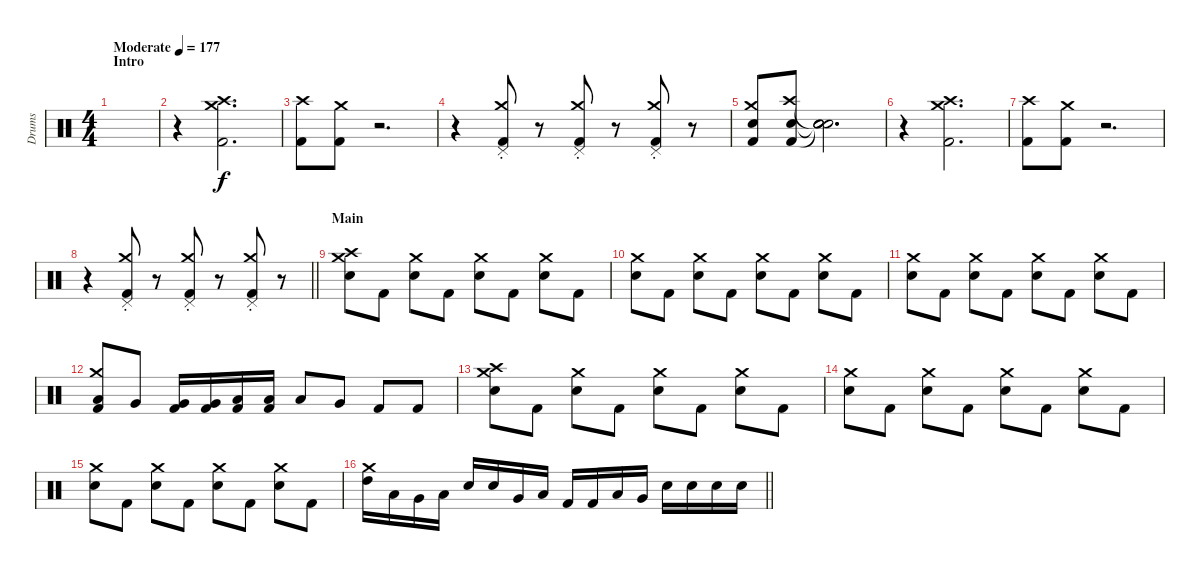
\track ("Drums" "Drums") {instrument percussion}
\staff {score}
\articulation defaults
\ts (4 4)
\section ("" "Intro")
\tempo (177 "Moderate")
\clef neutral
\ks c
|
r.4 ("Kick (hit) 2" "Crash high (hit)" "Crash medium (hit)").2{d} |
("Kick (hit) 2" "Crash high (hit)").8 ("Kick (hit) 2" "Crash medium (hit)").8 r.2{d} |
r.4 ("Kick (hit) 2" "Pedal Hi-Hat (hit)" "Crash medium (hit)"{st}).8 r.8 ("Kick (hit) 2" "Pedal Hi-Hat (hit)" "Crash medium (hit)"{st}).8 r.8 ("Kick (hit) 2" "Pedal Hi-Hat (hit)" "Crash medium (hit)"{st}).8 r.8 |
("Kick (hit) 2" "Snare (hit) 2" "Crash medium (hit)").8 ("Kick (hit) 2" "Snare (hit) 2" "Crash high (hit)").8 ("Snare (hit)"{t} "Snare (hit)"{t} "Snare (hit)"{t} "Snare (hit)").2{d} |
r.4 ("Kick (hit) 2" "Crash high (hit)" "Crash medium (hit)").2{d} |
("Kick (hit) 2" "Crash high (hit)").8 ("Kick (hit) 2" "Crash medium (hit)").8 r.2{d} |
\barLineRight lightlight
r.4 ("Kick (hit) 2" "Pedal Hi-Hat (hit)" "Crash medium (hit)"{st}).8 r.8 ("Kick (hit) 2" "Pedal Hi-Hat (hit)" "Crash medium (hit)"{st}).8 r.8 ("Kick (hit) 2" "Pedal Hi-Hat (hit)" "Crash medium (hit)"{st}).8 r.8 |
\section ("" "Main")
("Snare (hit) 2" "Crash medium (hit)" "Crash high (hit)").8 "Kick (hit) 2".8 ("Snare (hit) 2" "Crash medium (hit)").8 "Kick (hit) 2".8 ("Snare (hit) 2" "Crash medium (hit)").8 "Kick (hit) 2".8 ("Snare (hit) 2" "Crash medium (hit)").8 "Kick (hit) 2".8 |
("Snare (hit) 2" "Crash medium (hit)").8 "Kick (hit) 2".8 ("Snare (hit) 2" "Crash medium (hit)").8 "Kick (hit) 2".8 ("Snare (hit) 2" "Crash medium (hit)").8 "Kick (hit) 2".8 ("Snare (hit) 2" "Crash medium (hit)").8 "Kick (hit) 2".8 |
("Snare (hit) 2" "Crash medium (hit)").8 "Kick (hit) 2".8 ("Snare (hit) 2" "Crash medium (hit)").8 "Kick (hit) 2".8 ("Snare (hit) 2" "Crash medium (hit)").8 "Kick (hit) 2".8 ("Snare (hit) 2" "Crash medium (hit)").8 "Kick (hit) 2".8 |
("Kick (hit) 2" "Low Tom (hit)" "Crash medium (hit)").8 "Very Low Tom (hit)".8 ("Kick (hit) 2" "Very Low Tom (hit)").16 ("Kick (hit) 2" "Very Low Tom (hit)").16 ("Kick (hit) 2" "Low Floor Tom (hit)").16 ("Kick (hit) 2" "Low Floor Tom (hit)").16 "Low Tom (hit)".8 "Very Low Tom (hit)".8 "Kick (hit) 2".8 "Kick (hit) 2".8 |
("Snare (hit) 2" "Crash medium (hit)" "Crash high (hit)").8 "Kick (hit) 2".8 ("Snare (hit) 2" "Crash medium (hit)").8 "Kick (hit) 2".8 ("Snare (hit) 2" "Crash medium (hit)").8 "Kick (hit) 2".8 ("Snare (hit) 2" "Crash medium (hit)").8 "Kick (hit) 2".8 |
("Snare (hit) 2" "Crash medium (hit)").8 "Kick (hit) 2".8 ("Snare (hit) 2" "Crash medium (hit)").8 "Kick (hit) 2".8 ("Snare (hit) 2" "Crash medium (hit)").8 "Kick (hit) 2".8 ("Snare (hit) 2" "Crash medium (hit)").8 "Kick (hit) 2".8 |
("Snare (hit) 2" "Crash medium (hit)").8 "Kick (hit) 2".8 ("Snare (hit) 2" "Crash medium (hit)").8 "Kick (hit) 2".8 ("Snare (hit) 2" "Crash medium (hit)").8 "Kick (hit) 2".8 ("Snare (hit) 2" "Crash medium (hit)").8 "Kick (hit) 2".8 |
\barLineRight lightlight
("High Tom (hit)" "Crash medium (hit)").16 "Low Tom (hit)".16 "Very Low Tom (hit)".16 "Low Floor Tom (hit)".16 "Snare (hit) 2".16 "Snare (hit) 2".16 "Very Low Tom (hit)".16 "Low Floor Tom (hit)".16 "Kick (hit) 2".16 "Kick (hit) 2".16 "Low Tom (hit)".16 "Very Low Tom (hit)".16 "Snare (hit) 2".16 "Snare (hit) 2".16 "Snare (hit) 2".16 "Snare (hit) 2".16
